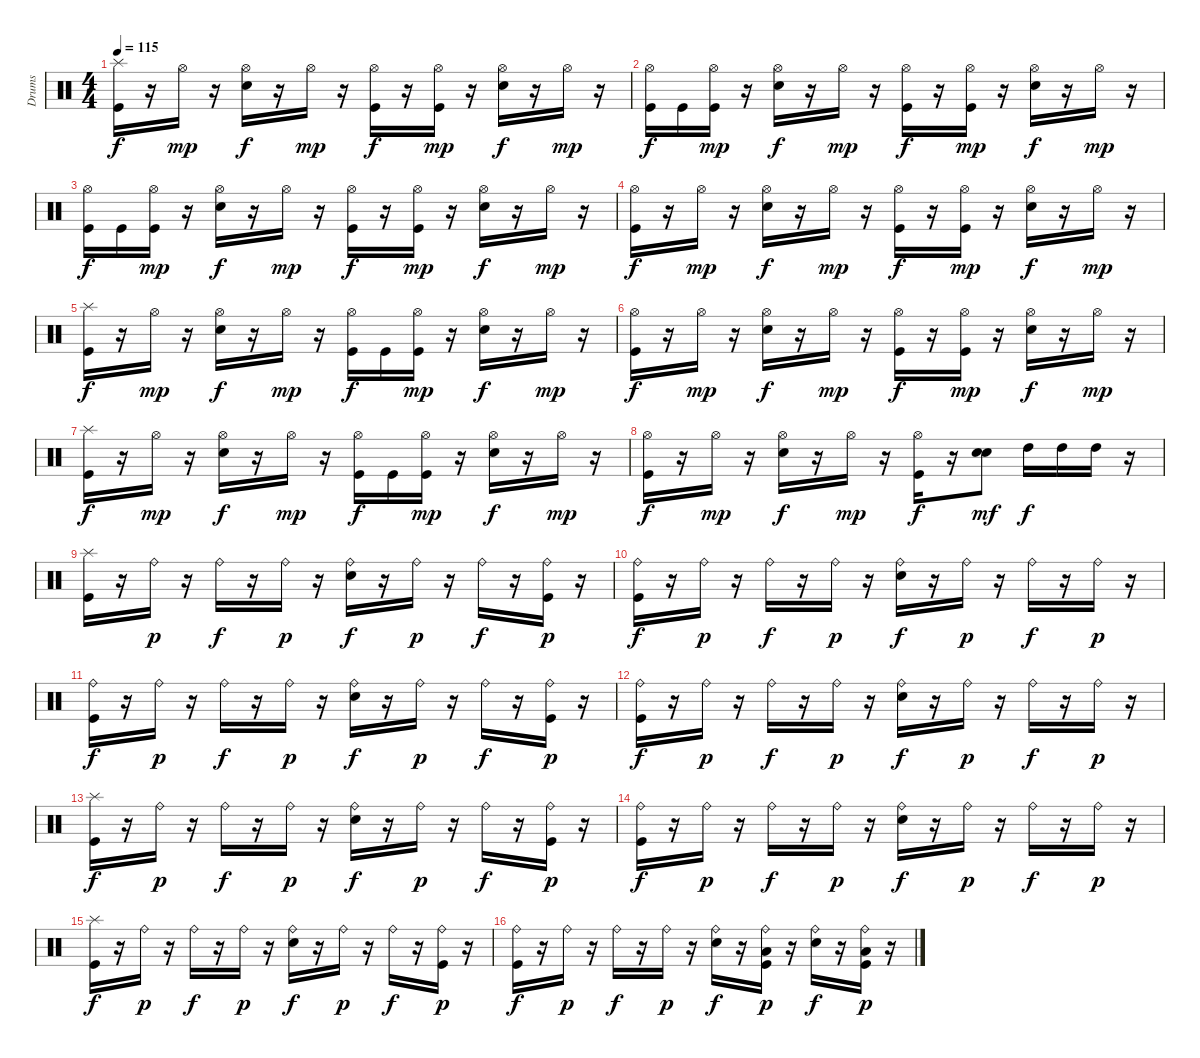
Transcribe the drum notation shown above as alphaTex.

\track ("Drums" "Drums") {instrument percussion}
\staff {score}
\articulation defaults
\ts (4 4)
\tempo 115
\clef neutral
\ks c
("Splash (hit)" "Kick (hit)").16{dy f} r.16 "Hi-Hat (open)".16{dy mp} r.16 ("Hi-Hat (open)" "Electric Snare (hit)").16{dy f} r.16 "Hi-Hat (open)".16{dy mp} r.16 ("Hi-Hat (open)" "Kick (hit)").16{dy f} r.16 ("Kick (hit)" "Hi-Hat (open)").16{dy mp} r.16 ("Hi-Hat (open)" "Electric Snare (hit)").16{dy f} r.16 "Hi-Hat (open)".16{dy mp} r.16 |
("Hi-Hat (open)" "Kick (hit)").16{dy f} "Kick (hit)".16 ("Kick (hit)" "Hi-Hat (open)").16{dy mp} r.16 ("Hi-Hat (open)" "Electric Snare (hit)").16{dy f} r.16 "Hi-Hat (open)".16{dy mp} r.16 ("Hi-Hat (open)" "Kick (hit)").16{dy f} r.16 ("Kick (hit)" "Hi-Hat (open)").16{dy mp} r.16 ("Hi-Hat (open)" "Electric Snare (hit)").16{dy f} r.16 "Hi-Hat (open)".16{dy mp} r.16 |
("Hi-Hat (open)" "Kick (hit)").16{dy f} "Kick (hit)".16 ("Kick (hit)" "Hi-Hat (open)").16{dy mp} r.16 ("Hi-Hat (open)" "Electric Snare (hit)").16{dy f} r.16 "Hi-Hat (open)".16{dy mp} r.16 ("Hi-Hat (open)" "Kick (hit)").16{dy f} r.16 ("Kick (hit)" "Hi-Hat (open)").16{dy mp} r.16 ("Hi-Hat (open)" "Electric Snare (hit)").16{dy f} r.16 "Hi-Hat (open)".16{dy mp} r.16 |
("Hi-Hat (open)" "Kick (hit)").16{dy f} r.16 "Hi-Hat (open)".16{dy mp} r.16 ("Hi-Hat (open)" "Electric Snare (hit)").16{dy f} r.16 "Hi-Hat (open)".16{dy mp} r.16 ("Hi-Hat (open)" "Kick (hit)").16{dy f} r.16 ("Kick (hit)" "Hi-Hat (open)").16{dy mp} r.16 ("Hi-Hat (open)" "Electric Snare (hit)").16{dy f} r.16 "Hi-Hat (open)".16{dy mp} r.16 |
("Splash (hit)" "Kick (hit)").16{dy f} r.16 "Hi-Hat (open)".16{dy mp} r.16 ("Hi-Hat (open)" "Electric Snare (hit)").16{dy f} r.16 "Hi-Hat (open)".16{dy mp} r.16 ("Hi-Hat (open)" "Kick (hit)").16{dy f} "Kick (hit)".16 ("Kick (hit)" "Hi-Hat (open)").16{dy mp} r.16 ("Hi-Hat (open)" "Electric Snare (hit)").16{dy f} r.16 "Hi-Hat (open)".16{dy mp} r.16 |
("Hi-Hat (open)" "Kick (hit)").16{dy f} r.16 "Hi-Hat (open)".16{dy mp} r.16 ("Hi-Hat (open)" "Electric Snare (hit)").16{dy f} r.16 "Hi-Hat (open)".16{dy mp} r.16 ("Hi-Hat (open)" "Kick (hit)").16{dy f} r.16 ("Kick (hit)" "Hi-Hat (open)").16{dy mp} r.16 ("Hi-Hat (open)" "Electric Snare (hit)").16{dy f} r.16 "Hi-Hat (open)".16{dy mp} r.16 |
("Splash (hit)" "Kick (hit)").16{dy f} r.16 "Hi-Hat (open)".16{dy mp} r.16 ("Hi-Hat (open)" "Electric Snare (hit)").16{dy f} r.16 "Hi-Hat (open)".16{dy mp} r.16 ("Hi-Hat (open)" "Kick (hit)").16{dy f} "Kick (hit)".16 ("Kick (hit)" "Hi-Hat (open)").16{dy mp} r.16 ("Hi-Hat (open)" "Electric Snare (hit)").16{dy f} r.16 "Hi-Hat (open)".16{dy mp} r.16 |
("Hi-Hat (open)" "Kick (hit)").16{dy f} r.16 "Hi-Hat (open)".16{dy mp} r.16 ("Hi-Hat (open)" "Electric Snare (hit)").16{dy f} r.16 "Hi-Hat (open)".16{dy mp} r.16 ("Hi-Hat (open)" "Kick (hit)").16{dy f} r.16 ("Electric Snare (hit)" "Electric Snare (hit)").8{dy mf} "High Tom (hit)".16{dy f} "High Tom (hit)".16 "High Tom (hit)".16 r.16 |
("Splash (hit)" "Kick (hit)").16 r.16 "Ride (bell)".16{dy p} r.16 "Ride (bell)".16{dy f} r.16 "Ride (bell)".16{dy p} r.16 ("Electric Snare (hit)" "Ride (bell)").16{dy f} r.16 "Ride (bell)".16{dy p} r.16 "Ride (bell)".16{dy f} r.16 ("Ride (bell)" "Kick (hit)").16{dy p} r.16 |
("Ride (bell)" "Kick (hit)").16{dy f} r.16 "Ride (bell)".16{dy p} r.16 "Ride (bell)".16{dy f} r.16 "Ride (bell)".16{dy p} r.16 ("Electric Snare (hit)" "Ride (bell)").16{dy f} r.16 "Ride (bell)".16{dy p} r.16 "Ride (bell)".16{dy f} r.16 "Ride (bell)".16{dy p} r.16 |
("Ride (bell)" "Kick (hit)").16{dy f} r.16 "Ride (bell)".16{dy p} r.16 "Ride (bell)".16{dy f} r.16 "Ride (bell)".16{dy p} r.16 ("Electric Snare (hit)" "Ride (bell)").16{dy f} r.16 "Ride (bell)".16{dy p} r.16 "Ride (bell)".16{dy f} r.16 ("Ride (bell)" "Kick (hit)").16{dy p} r.16 |
("Ride (bell)" "Kick (hit)").16{dy f} r.16 "Ride (bell)".16{dy p} r.16 "Ride (bell)".16{dy f} r.16 "Ride (bell)".16{dy p} r.16 ("Electric Snare (hit)" "Ride (bell)").16{dy f} r.16 "Ride (bell)".16{dy p} r.16 "Ride (bell)".16{dy f} r.16 "Ride (bell)".16{dy p} r.16 |
("Splash (hit)" "Kick (hit)").16{dy f} r.16 "Ride (bell)".16{dy p} r.16 "Ride (bell)".16{dy f} r.16 "Ride (bell)".16{dy p} r.16 ("Electric Snare (hit)" "Ride (bell)").16{dy f} r.16 "Ride (bell)".16{dy p} r.16 "Ride (bell)".16{dy f} r.16 ("Ride (bell)" "Kick (hit)").16{dy p} r.16 |
("Ride (bell)" "Kick (hit)").16{dy f} r.16 "Ride (bell)".16{dy p} r.16 "Ride (bell)".16{dy f} r.16 "Ride (bell)".16{dy p} r.16 ("Electric Snare (hit)" "Ride (bell)").16{dy f} r.16 "Ride (bell)".16{dy p} r.16 "Ride (bell)".16{dy f} r.16 "Ride (bell)".16{dy p} r.16 |
("Splash (hit)" "Kick (hit)").16{dy f} r.16 "Ride (bell)".16{dy p} r.16 "Ride (bell)".16{dy f} r.16 "Ride (bell)".16{dy p} r.16 ("Electric Snare (hit)" "Ride (bell)").16{dy f} r.16 "Ride (bell)".16{dy p} r.16 "Ride (bell)".16{dy f} r.16 ("Ride (bell)" "Kick (hit)").16{dy p} r.16 |
("Ride (bell)" "Kick (hit)").16{dy f} r.16 "Ride (bell)".16{dy p} r.16 "Ride (bell)".16{dy f} r.16 "Ride (bell)".16{dy p} r.16 ("Electric Snare (hit)" "Ride (bell)").16{dy f} r.16 ("Low Floor Tom (hit)" "Kick (hit)" "Ride (bell)").16{dy p} r.16 ("Electric Snare (hit)" "Ride (bell)").16{dy f} r.16 ("Low Floor Tom (hit)" "Kick (hit)" "Ride (bell)").16{dy p} r.16
